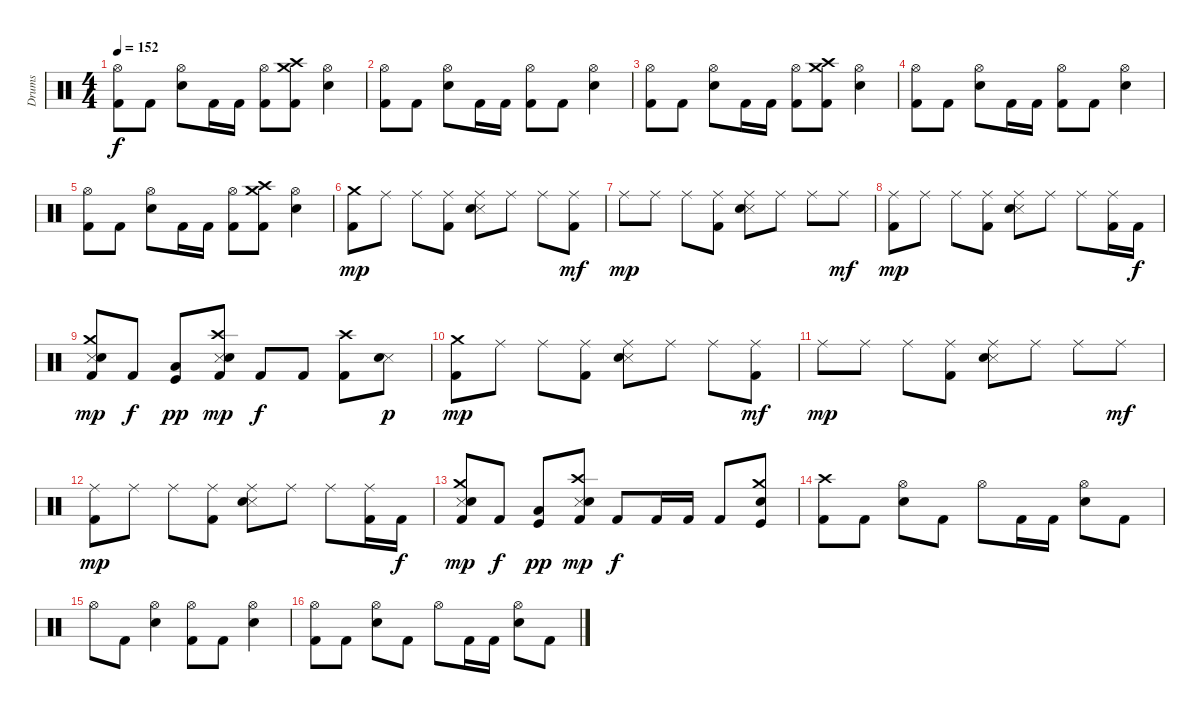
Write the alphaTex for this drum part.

\track ("Drums" "Drums") {instrument percussion}
\staff {score}
\articulation defaults
\ts (4 4)
\tempo 152
\clef neutral
\ks c
("Hi-Hat (open)" "Kick (hit) 2").8{dy f} "Kick (hit) 2".8 ("Hi-Hat (open)" "Snare (hit) 2").8 "Kick (hit) 2".16 "Kick (hit) 2".16 ("Hi-Hat (open)" "Kick (hit) 2").8 ("Crash medium (hit)" "Crash high (hit)" "Kick (hit) 2").8 ("Hi-Hat (open)" "Snare (hit) 2").4 |
("Hi-Hat (open)" "Kick (hit) 2").8 "Kick (hit) 2".8 ("Hi-Hat (open)" "Snare (hit) 2").8 "Kick (hit) 2".16 "Kick (hit) 2".16 ("Hi-Hat (open)" "Kick (hit) 2").8 "Kick (hit) 2".8 ("Hi-Hat (open)" "Snare (hit) 2").4 |
("Hi-Hat (open)" "Kick (hit) 2").8 "Kick (hit) 2".8 ("Hi-Hat (open)" "Snare (hit) 2").8 "Kick (hit) 2".16 "Kick (hit) 2".16 ("Hi-Hat (open)" "Kick (hit) 2").8 ("Crash medium (hit)" "Crash high (hit)" "Kick (hit) 2").8 ("Hi-Hat (open)" "Snare (hit) 2").4 |
("Hi-Hat (open)" "Kick (hit) 2").8 "Kick (hit) 2".8 ("Hi-Hat (open)" "Snare (hit) 2").8 "Kick (hit) 2".16 "Kick (hit) 2".16 ("Hi-Hat (open)" "Kick (hit) 2").8 "Kick (hit) 2".8 ("Hi-Hat (open)" "Snare (hit) 2").4 |
("Hi-Hat (open)" "Kick (hit) 2").8 "Kick (hit) 2".8 ("Hi-Hat (open)" "Snare (hit) 2").8 "Kick (hit) 2".16 "Kick (hit) 2".16 ("Hi-Hat (open)" "Kick (hit) 2").8 ("Crash medium (hit)" "Crash high (hit)" "Kick (hit) 2").8 ("Hi-Hat (open)" "Snare (hit) 2").4 |
("Crash medium (hit)" "Kick (hit) 2").8{dy mp volume 15} "Ride (middle)".8 "Ride (middle)".8 ("Ride (middle)" "Kick (hit) 2").8 ("Ride (middle)" "Snare (side stick) 3" "Snare (hit) 2").8 "Ride (middle)".8 "Ride (middle)".8 ("Ride (middle)" "Kick (hit) 2").8{dy mf} |
"Ride (middle)".8{dy mp} "Ride (middle)".8 "Ride (middle)".8 ("Ride (middle)" "Kick (hit) 2").8 ("Ride (middle)" "Snare (side stick) 3" "Snare (hit) 2").8 "Ride (middle)".8 "Ride (middle)".8 "Ride (middle)".8{dy mf} |
("Ride (middle)" "Kick (hit) 2").8{dy mp} "Ride (middle)".8 "Ride (middle)".8 ("Ride (middle)" "Kick (hit) 2").8 ("Ride (middle)" "Snare (side stick) 3" "Snare (hit) 2").8 "Ride (middle)".8 "Ride (middle)".8 ("Ride (middle)" "Kick (hit) 2").16 "Kick (hit) 2".16{dy f} |
("Crash medium (hit)" "Snare (side stick) 3" "Snare (hit) 2" "Kick (hit) 2").8{dy mp} "Kick (hit) 2".8{dy f} ("Low Tom (hit)" "Kick (hit)").8{dy pp} ("Crash high (hit)" "Snare (side stick) 3" "Snare (hit) 2" "Kick (hit) 2").8{dy mp} "Kick (hit) 2".8{dy f} "Kick (hit) 2".8 ("Crash high (hit)" "Kick (hit) 2").8 ("Snare (side stick) 3" "Snare (hit) 2").8{dy p} |
("Crash medium (hit)" "Kick (hit) 2").8{dy mp} "Ride (middle)".8 "Ride (middle)".8 ("Ride (middle)" "Kick (hit) 2").8 ("Ride (middle)" "Snare (side stick) 3" "Snare (hit) 2").8 "Ride (middle)".8 "Ride (middle)".8 ("Ride (middle)" "Kick (hit) 2").8{dy mf} |
"Ride (middle)".8{dy mp} "Ride (middle)".8 "Ride (middle)".8 ("Ride (middle)" "Kick (hit) 2").8 ("Ride (middle)" "Snare (side stick) 3" "Snare (hit) 2").8 "Ride (middle)".8 "Ride (middle)".8 "Ride (middle)".8{dy mf} |
("Ride (middle)" "Kick (hit) 2").8{dy mp} "Ride (middle)".8 "Ride (middle)".8 ("Ride (middle)" "Kick (hit) 2").8 ("Ride (middle)" "Snare (side stick) 3" "Snare (hit) 2").8 "Ride (middle)".8 "Ride (middle)".8 ("Ride (middle)" "Kick (hit) 2").16 "Kick (hit) 2".16{dy f} |
("Crash medium (hit)" "Snare (side stick) 3" "Snare (hit) 2" "Kick (hit) 2").8{dy mp} "Kick (hit) 2".8{dy f} ("Low Tom (hit)" "Kick (hit)").8{dy pp} ("Crash high (hit)" "Snare (side stick) 3" "Snare (hit) 2" "Kick (hit) 2").8{dy mp} "Kick (hit) 2".8{dy f} "Kick (hit) 2".16 "Kick (hit) 2".16 "Kick (hit) 2".8 ("Crash medium (hit)" "Snare (hit) 2" "Kick (hit)").8 |
("Crash high (hit)" "Kick (hit) 2").8{volume 13} "Kick (hit) 2".8 ("Hi-Hat (open)" "Snare (hit) 2").8 "Kick (hit) 2".8 "Hi-Hat (open)".8 "Kick (hit) 2".16 "Kick (hit) 2".16 ("Hi-Hat (open)" "Snare (hit) 2").8 "Kick (hit) 2".8 |
"Hi-Hat (open)".8 "Kick (hit) 2".8 ("Hi-Hat (open)" "Snare (hit) 2").4 ("Hi-Hat (open)" "Kick (hit) 2").8 "Kick (hit) 2".8 ("Hi-Hat (open)" "Snare (hit) 2").4 |
("Hi-Hat (open)" "Kick (hit) 2").8 "Kick (hit) 2".8 ("Hi-Hat (open)" "Snare (hit) 2").8 "Kick (hit) 2".8 "Hi-Hat (open)".8 "Kick (hit) 2".16 "Kick (hit) 2".16 ("Hi-Hat (open)" "Snare (hit) 2").8 "Kick (hit) 2".8
